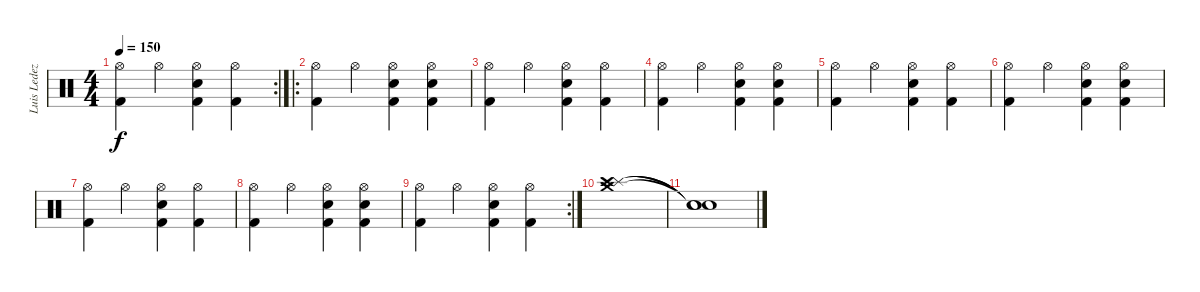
\track ("Luis Ledezma" "Luis Ledez") {instrument percussion}
\staff {score}
\articulation defaults
\rc 2
\ts (4 4)
\tempo 150
\clef neutral
\ks c
("Hi-Hat (open)" "Kick (hit) 2").4{dy f} "Hi-Hat (open)".4 ("Hi-Hat (open)" "Electric Snare (hit)" "Kick (hit) 2").4 ("Hi-Hat (open)" "Kick (hit) 2").4 |
\ro
("Hi-Hat (open)" "Kick (hit) 2").4 "Hi-Hat (open)".4 ("Hi-Hat (open)" "Electric Snare (hit)" "Kick (hit) 2").4 ("Hi-Hat (open)" "Electric Snare (hit)" "Kick (hit) 2").4 |
("Hi-Hat (open)" "Kick (hit) 2").4 "Hi-Hat (open)".4 ("Hi-Hat (open)" "Electric Snare (hit)" "Kick (hit) 2").4 ("Hi-Hat (open)" "Kick (hit) 2").4 |
("Hi-Hat (open)" "Kick (hit) 2").4 "Hi-Hat (open)".4 ("Hi-Hat (open)" "Electric Snare (hit)" "Kick (hit) 2").4 ("Hi-Hat (open)" "Electric Snare (hit)" "Kick (hit) 2").4 |
("Hi-Hat (open)" "Kick (hit) 2").4 "Hi-Hat (open)".4 ("Hi-Hat (open)" "Electric Snare (hit)" "Kick (hit) 2").4 ("Hi-Hat (open)" "Kick (hit) 2").4 |
("Hi-Hat (open)" "Kick (hit) 2").4 "Hi-Hat (open)".4 ("Hi-Hat (open)" "Electric Snare (hit)" "Kick (hit) 2").4 ("Hi-Hat (open)" "Electric Snare (hit)" "Kick (hit) 2").4 |
("Hi-Hat (open)" "Kick (hit) 2").4 "Hi-Hat (open)".4 ("Hi-Hat (open)" "Electric Snare (hit)" "Kick (hit) 2").4 ("Hi-Hat (open)" "Kick (hit) 2").4 |
("Hi-Hat (open)" "Kick (hit) 2").4 "Hi-Hat (open)".4 ("Hi-Hat (open)" "Electric Snare (hit)" "Kick (hit) 2").4 ("Hi-Hat (open)" "Electric Snare (hit)" "Kick (hit) 2").4 |
\rc 2
("Hi-Hat (open)" "Kick (hit) 2").4 "Hi-Hat (open)".4 ("Hi-Hat (open)" "Electric Snare (hit)" "Kick (hit) 2").4 ("Hi-Hat (open)" "Kick (hit) 2").4 |
("Splash (hit)" "Crash high (hit)" "Crash medium (hit)").1 |
("Snare (hit)"{t} "Snare (hit)"{t} "Snare (hit)"{t}).1
